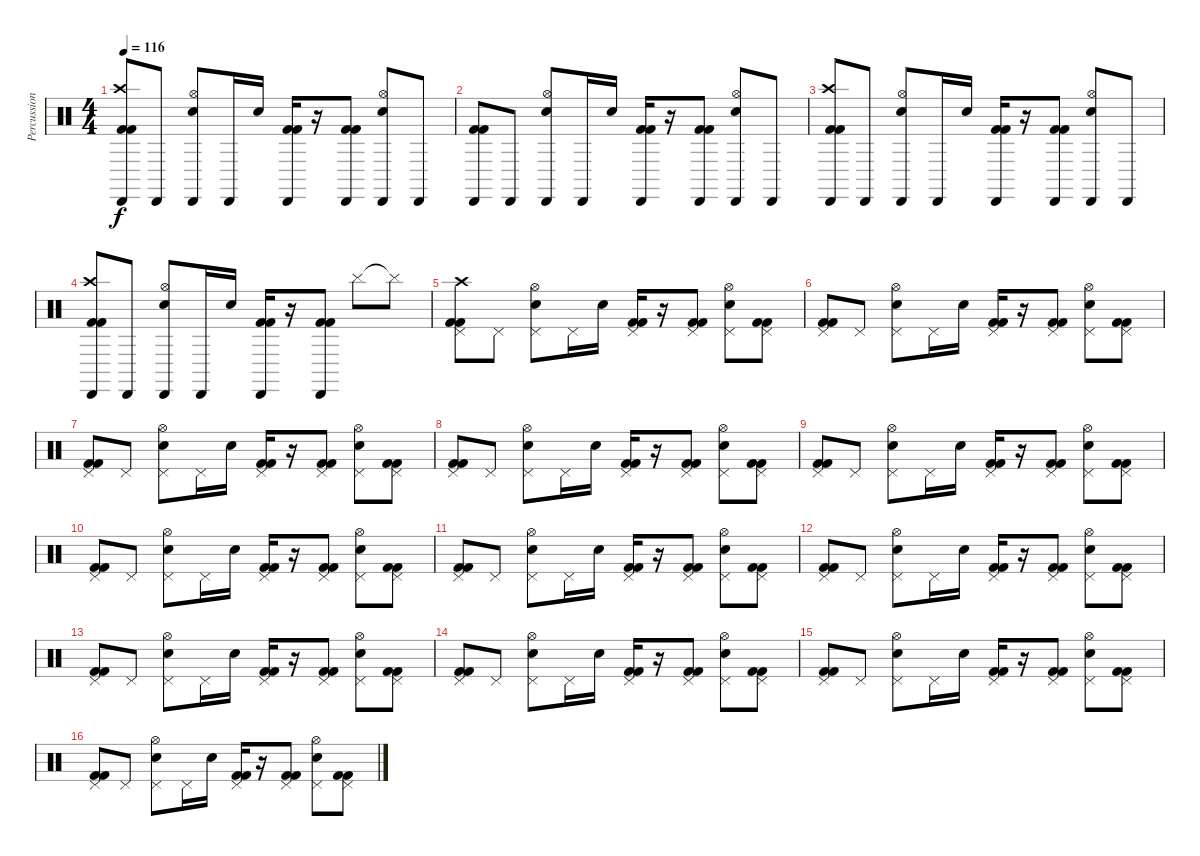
\track ("Percussion" "Percussion") {instrument percussion}
\staff {score}
\articulation defaults
\ts (4 4)
\tempo 116
\clef neutral
\ks c
("Cabasa (hit)" "Crash high (hit)" "Kick (hit) 2" "Kick (hit) 2").8{dy f} "Cabasa (hit)".8 ("Cabasa (hit)" "Hi-Hat (open)" "Snare (hit) 2").8 "Cabasa (hit)".16 "Snare (hit) 2".16 ("Cabasa (hit)" "Kick (hit) 2" "Kick (hit) 2").16 r.16 ("Cabasa (hit)" "Kick (hit) 2" "Kick (hit) 2").8 ("Cabasa (hit)" "Hi-Hat (open)" "Snare (hit) 2").8 "Cabasa (hit)".8 |
("Cabasa (hit)" "Kick (hit) 2" "Kick (hit) 2").8 "Cabasa (hit)".8 ("Cabasa (hit)" "Hi-Hat (open)" "Snare (hit) 2").8 "Cabasa (hit)".16 "Snare (hit) 2".16 ("Cabasa (hit)" "Kick (hit) 2" "Kick (hit) 2").16 r.16 ("Cabasa (hit)" "Kick (hit) 2" "Kick (hit) 2").8 ("Cabasa (hit)" "Hi-Hat (open)" "Snare (hit) 2").8 "Cabasa (hit)".8 |
("Cabasa (hit)" "Crash high (hit)" "Kick (hit) 2" "Kick (hit) 2").8 "Cabasa (hit)".8 ("Cabasa (hit)" "Hi-Hat (open)" "Snare (hit) 2").8 "Cabasa (hit)".16 "Snare (hit) 2".16 ("Cabasa (hit)" "Kick (hit) 2" "Kick (hit) 2").16 r.16 ("Cabasa (hit)" "Kick (hit) 2" "Kick (hit) 2").8 ("Cabasa (hit)" "Hi-Hat (open)" "Snare (hit) 2").8 "Cabasa (hit)".8 |
("Cabasa (hit)" "Crash high (hit)" "Kick (hit) 2" "Kick (hit) 2").8 "Cabasa (hit)".8 ("Cabasa (hit)" "Hi-Hat (open)" "Snare (hit) 2").8 "Cabasa (hit)".16 "Snare (hit) 2".16 ("Cabasa (hit)" "Kick (hit) 2" "Kick (hit) 2").16 r.16 ("Cabasa (hit)" "Kick (hit) 2" "Kick (hit) 2").8 "Cymbal (hit)".8 "Cymbal (hit)"{t}.8 |
("Pedal Hi-Hat (hit)" "Crash high (hit)" "Kick (hit) 2" "Kick (hit) 2").8 "Pedal Hi-Hat (hit)".8 ("Pedal Hi-Hat (hit)" "Hi-Hat (open)" "Snare (hit) 2").8 "Pedal Hi-Hat (hit)".16 "Snare (hit) 2".16 ("Pedal Hi-Hat (hit)" "Kick (hit) 2" "Kick (hit) 2").16 r.16 ("Pedal Hi-Hat (hit)" "Kick (hit) 2" "Kick (hit) 2").8 ("Pedal Hi-Hat (hit)" "Hi-Hat (open)" "Snare (hit) 2").8 ("Pedal Hi-Hat (hit)" "Kick (hit) 2" "Kick (hit) 2").8 |
("Pedal Hi-Hat (hit)" "Kick (hit) 2" "Kick (hit) 2").8 "Pedal Hi-Hat (hit)".8 ("Pedal Hi-Hat (hit)" "Hi-Hat (open)" "Snare (hit) 2").8 "Pedal Hi-Hat (hit)".16 "Snare (hit) 2".16 ("Pedal Hi-Hat (hit)" "Kick (hit) 2" "Kick (hit) 2").16 r.16 ("Pedal Hi-Hat (hit)" "Kick (hit) 2" "Kick (hit) 2").8 ("Pedal Hi-Hat (hit)" "Hi-Hat (open)" "Snare (hit) 2").8 ("Pedal Hi-Hat (hit)" "Kick (hit) 2" "Kick (hit) 2").8 |
("Pedal Hi-Hat (hit)" "Kick (hit) 2" "Kick (hit) 2").8 "Pedal Hi-Hat (hit)".8 ("Pedal Hi-Hat (hit)" "Hi-Hat (open)" "Snare (hit) 2").8 "Pedal Hi-Hat (hit)".16 "Snare (hit) 2".16 ("Pedal Hi-Hat (hit)" "Kick (hit) 2" "Kick (hit) 2").16 r.16 ("Pedal Hi-Hat (hit)" "Kick (hit) 2" "Kick (hit) 2").8 ("Pedal Hi-Hat (hit)" "Hi-Hat (open)" "Snare (hit) 2").8 ("Pedal Hi-Hat (hit)" "Kick (hit) 2" "Kick (hit) 2").8 |
("Pedal Hi-Hat (hit)" "Kick (hit) 2" "Kick (hit) 2").8 "Pedal Hi-Hat (hit)".8 ("Pedal Hi-Hat (hit)" "Hi-Hat (open)" "Snare (hit) 2").8 "Pedal Hi-Hat (hit)".16 "Snare (hit) 2".16 ("Pedal Hi-Hat (hit)" "Kick (hit) 2" "Kick (hit) 2").16 r.16 ("Pedal Hi-Hat (hit)" "Kick (hit) 2" "Kick (hit) 2").8 ("Pedal Hi-Hat (hit)" "Hi-Hat (open)" "Snare (hit) 2").8 ("Pedal Hi-Hat (hit)" "Kick (hit) 2" "Kick (hit) 2").8 |
("Pedal Hi-Hat (hit)" "Kick (hit) 2" "Kick (hit) 2").8 "Pedal Hi-Hat (hit)".8 ("Pedal Hi-Hat (hit)" "Hi-Hat (open)" "Snare (hit) 2").8 "Pedal Hi-Hat (hit)".16 "Snare (hit) 2".16 ("Pedal Hi-Hat (hit)" "Kick (hit) 2" "Kick (hit) 2").16 r.16 ("Pedal Hi-Hat (hit)" "Kick (hit) 2" "Kick (hit) 2").8 ("Pedal Hi-Hat (hit)" "Hi-Hat (open)" "Snare (hit) 2").8 ("Pedal Hi-Hat (hit)" "Kick (hit) 2" "Kick (hit) 2").8 |
("Pedal Hi-Hat (hit)" "Kick (hit) 2" "Kick (hit) 2").8 "Pedal Hi-Hat (hit)".8 ("Pedal Hi-Hat (hit)" "Hi-Hat (open)" "Snare (hit) 2").8 "Pedal Hi-Hat (hit)".16 "Snare (hit) 2".16 ("Pedal Hi-Hat (hit)" "Kick (hit) 2" "Kick (hit) 2").16 r.16 ("Pedal Hi-Hat (hit)" "Kick (hit) 2" "Kick (hit) 2").8 ("Pedal Hi-Hat (hit)" "Hi-Hat (open)" "Snare (hit) 2").8 ("Pedal Hi-Hat (hit)" "Kick (hit) 2" "Kick (hit) 2").8 |
("Pedal Hi-Hat (hit)" "Kick (hit) 2" "Kick (hit) 2").8 "Pedal Hi-Hat (hit)".8 ("Pedal Hi-Hat (hit)" "Hi-Hat (open)" "Snare (hit) 2").8 "Pedal Hi-Hat (hit)".16 "Snare (hit) 2".16 ("Pedal Hi-Hat (hit)" "Kick (hit) 2" "Kick (hit) 2").16 r.16 ("Pedal Hi-Hat (hit)" "Kick (hit) 2" "Kick (hit) 2").8 ("Pedal Hi-Hat (hit)" "Hi-Hat (open)" "Snare (hit) 2").8 ("Pedal Hi-Hat (hit)" "Kick (hit) 2" "Kick (hit) 2").8 |
("Pedal Hi-Hat (hit)" "Kick (hit) 2" "Kick (hit) 2").8 "Pedal Hi-Hat (hit)".8 ("Pedal Hi-Hat (hit)" "Hi-Hat (open)" "Snare (hit) 2").8 "Pedal Hi-Hat (hit)".16 "Snare (hit) 2".16 ("Pedal Hi-Hat (hit)" "Kick (hit) 2" "Kick (hit) 2").16 r.16 ("Pedal Hi-Hat (hit)" "Kick (hit) 2" "Kick (hit) 2").8 ("Pedal Hi-Hat (hit)" "Hi-Hat (open)" "Snare (hit) 2").8 ("Pedal Hi-Hat (hit)" "Kick (hit) 2" "Kick (hit) 2").8 |
("Pedal Hi-Hat (hit)" "Kick (hit) 2" "Kick (hit) 2").8 "Pedal Hi-Hat (hit)".8 ("Pedal Hi-Hat (hit)" "Hi-Hat (open)" "Snare (hit) 2").8 "Pedal Hi-Hat (hit)".16 "Snare (hit) 2".16 ("Pedal Hi-Hat (hit)" "Kick (hit) 2" "Kick (hit) 2").16 r.16 ("Pedal Hi-Hat (hit)" "Kick (hit) 2" "Kick (hit) 2").8 ("Pedal Hi-Hat (hit)" "Hi-Hat (open)" "Snare (hit) 2").8 ("Pedal Hi-Hat (hit)" "Kick (hit) 2" "Kick (hit) 2").8 |
("Pedal Hi-Hat (hit)" "Kick (hit) 2" "Kick (hit) 2").8 "Pedal Hi-Hat (hit)".8 ("Pedal Hi-Hat (hit)" "Hi-Hat (open)" "Snare (hit) 2").8 "Pedal Hi-Hat (hit)".16 "Snare (hit) 2".16 ("Pedal Hi-Hat (hit)" "Kick (hit) 2" "Kick (hit) 2").16 r.16 ("Pedal Hi-Hat (hit)" "Kick (hit) 2" "Kick (hit) 2").8 ("Pedal Hi-Hat (hit)" "Hi-Hat (open)" "Snare (hit) 2").8 ("Pedal Hi-Hat (hit)" "Kick (hit) 2" "Kick (hit) 2").8 |
("Pedal Hi-Hat (hit)" "Kick (hit) 2" "Kick (hit) 2").8 "Pedal Hi-Hat (hit)".8 ("Pedal Hi-Hat (hit)" "Hi-Hat (open)" "Snare (hit) 2").8 "Pedal Hi-Hat (hit)".16 "Snare (hit) 2".16 ("Pedal Hi-Hat (hit)" "Kick (hit) 2" "Kick (hit) 2").16 r.16 ("Pedal Hi-Hat (hit)" "Kick (hit) 2" "Kick (hit) 2").8 ("Pedal Hi-Hat (hit)" "Hi-Hat (open)" "Snare (hit) 2").8 ("Pedal Hi-Hat (hit)" "Kick (hit) 2" "Kick (hit) 2").8 |
("Pedal Hi-Hat (hit)" "Kick (hit) 2" "Kick (hit) 2").8 "Pedal Hi-Hat (hit)".8 ("Pedal Hi-Hat (hit)" "Hi-Hat (open)" "Snare (hit) 2").8 "Pedal Hi-Hat (hit)".16 "Snare (hit) 2".16 ("Pedal Hi-Hat (hit)" "Kick (hit) 2" "Kick (hit) 2").16 r.16 ("Pedal Hi-Hat (hit)" "Kick (hit) 2" "Kick (hit) 2").8 ("Pedal Hi-Hat (hit)" "Hi-Hat (open)" "Snare (hit) 2").8 ("Pedal Hi-Hat (hit)" "Kick (hit) 2" "Kick (hit) 2").8
